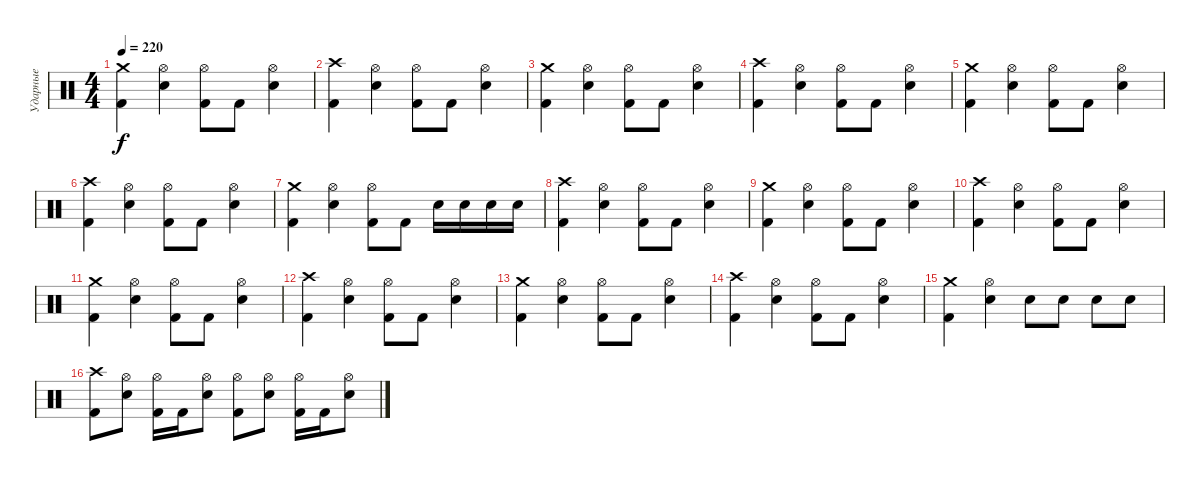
\track ("Ударные" "Ударные") {instrument percussion}
\staff {score}
\articulation defaults
\ts (4 4)
\tempo 220
\clef neutral
\ks c
("Crash medium (hit)" "Kick (hit) 2").4{dy f} ("Hi-Hat (open)" "Electric Snare (hit)").4 ("Hi-Hat (open)" "Kick (hit) 2").8 "Kick (hit) 2".8 ("Hi-Hat (open)" "Electric Snare (hit)").4 |
("Crash high (hit)" "Kick (hit) 2").4 ("Hi-Hat (open)" "Electric Snare (hit)").4 ("Hi-Hat (open)" "Kick (hit) 2").8 "Kick (hit) 2".8 ("Hi-Hat (open)" "Electric Snare (hit)").4 |
("Crash medium (hit)" "Kick (hit) 2").4 ("Hi-Hat (open)" "Electric Snare (hit)").4 ("Hi-Hat (open)" "Kick (hit) 2").8 "Kick (hit) 2".8 ("Hi-Hat (open)" "Electric Snare (hit)").4 |
("Crash high (hit)" "Kick (hit) 2").4 ("Hi-Hat (open)" "Electric Snare (hit)").4 ("Hi-Hat (open)" "Kick (hit) 2").8 "Kick (hit) 2".8 ("Hi-Hat (open)" "Electric Snare (hit)").4 |
("Crash medium (hit)" "Kick (hit) 2").4 ("Hi-Hat (open)" "Electric Snare (hit)").4 ("Hi-Hat (open)" "Kick (hit) 2").8 "Kick (hit) 2".8 ("Hi-Hat (open)" "Electric Snare (hit)").4 |
("Crash high (hit)" "Kick (hit) 2").4 ("Hi-Hat (open)" "Electric Snare (hit)").4 ("Hi-Hat (open)" "Kick (hit) 2").8 "Kick (hit) 2".8 ("Hi-Hat (open)" "Electric Snare (hit)").4 |
("Crash medium (hit)" "Kick (hit) 2").4 ("Hi-Hat (open)" "Electric Snare (hit)").4 ("Hi-Hat (open)" "Kick (hit) 2").8 "Kick (hit) 2".8 "Electric Snare (hit)".16 "Electric Snare (hit)".16 "Electric Snare (hit)".16 "Electric Snare (hit)".16 |
("Crash high (hit)" "Kick (hit) 2").4 ("Hi-Hat (open)" "Electric Snare (hit)").4 ("Hi-Hat (open)" "Kick (hit) 2").8 "Kick (hit) 2".8 ("Hi-Hat (open)" "Electric Snare (hit)").4 |
("Crash medium (hit)" "Kick (hit) 2").4 ("Hi-Hat (open)" "Electric Snare (hit)").4 ("Hi-Hat (open)" "Kick (hit) 2").8 "Kick (hit) 2".8 ("Hi-Hat (open)" "Electric Snare (hit)").4 |
("Crash high (hit)" "Kick (hit) 2").4 ("Hi-Hat (open)" "Electric Snare (hit)").4 ("Hi-Hat (open)" "Kick (hit) 2").8 "Kick (hit) 2".8 ("Hi-Hat (open)" "Electric Snare (hit)").4 |
("Crash medium (hit)" "Kick (hit) 2").4 ("Hi-Hat (open)" "Electric Snare (hit)").4 ("Hi-Hat (open)" "Kick (hit) 2").8 "Kick (hit) 2".8 ("Hi-Hat (open)" "Electric Snare (hit)").4 |
("Crash high (hit)" "Kick (hit) 2").4 ("Hi-Hat (open)" "Electric Snare (hit)").4 ("Hi-Hat (open)" "Kick (hit) 2").8 "Kick (hit) 2".8 ("Hi-Hat (open)" "Electric Snare (hit)").4 |
("Crash medium (hit)" "Kick (hit) 2").4 ("Hi-Hat (open)" "Electric Snare (hit)").4 ("Hi-Hat (open)" "Kick (hit) 2").8 "Kick (hit) 2".8 ("Hi-Hat (open)" "Electric Snare (hit)").4 |
("Crash high (hit)" "Kick (hit) 2").4 ("Hi-Hat (open)" "Electric Snare (hit)").4 ("Hi-Hat (open)" "Kick (hit) 2").8 "Kick (hit) 2".8 ("Hi-Hat (open)" "Electric Snare (hit)").4 |
("Crash medium (hit)" "Kick (hit) 2").4 ("Hi-Hat (open)" "Electric Snare (hit)").4 "Electric Snare (hit)".8 "Electric Snare (hit)".8 "Electric Snare (hit)".8 "Electric Snare (hit)".8 |
("Crash high (hit)" "Kick (hit) 2").8 ("Hi-Hat (open)" "Electric Snare (hit)").8 ("Hi-Hat (open)" "Kick (hit) 2").16 "Kick (hit) 2".16 ("Hi-Hat (open)" "Electric Snare (hit)").8 ("Hi-Hat (open)" "Kick (hit) 2").8 ("Hi-Hat (open)" "Electric Snare (hit)").8 ("Hi-Hat (open)" "Kick (hit) 2").16 "Kick (hit) 2".16 ("Hi-Hat (open)" "Electric Snare (hit)").8
